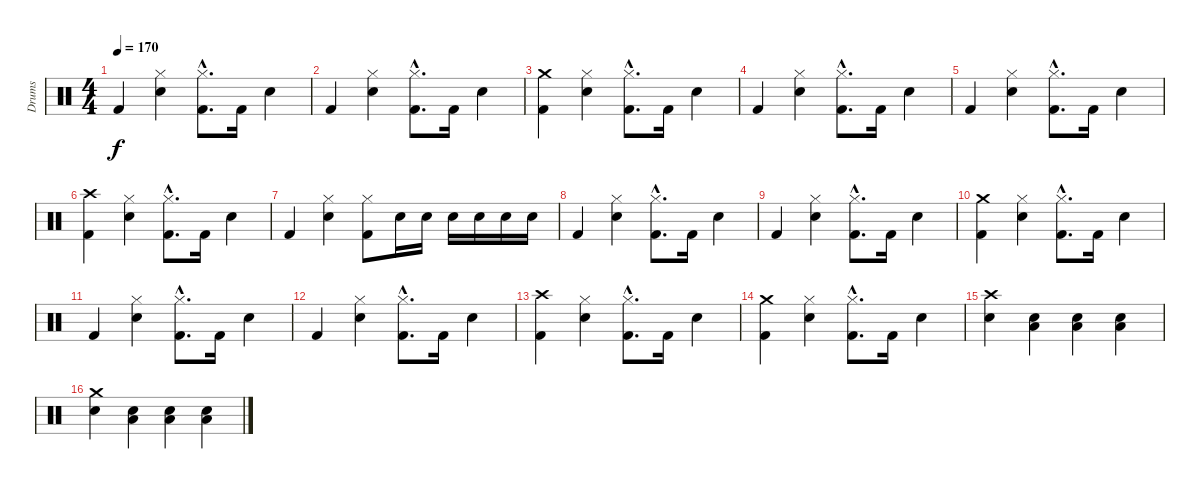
\track ("Drums" "Drums") {instrument percussion}
\staff {score}
\articulation defaults
\ts (4 4)
\tempo 170
\clef neutral
\ks c "Kick (hit) 2".4{dy f}
("Hi-Hat (closed)" "Snare (hit) 2").4 ("Hi-Hat (closed)"{hac} "Kick (hit) 2"{hac}).8{d} "Kick (hit) 2".16 "Snare (hit) 2".4 |
"Kick (hit) 2".4 ("Hi-Hat (closed)" "Snare (hit) 2").4 ("Hi-Hat (closed)"{hac} "Kick (hit) 2"{hac}).8{d} "Kick (hit) 2".16 "Snare (hit) 2".4 |
("Crash medium (hit)" "Kick (hit) 2").4 ("Hi-Hat (closed)" "Snare (hit) 2").4 ("Hi-Hat (closed)"{hac} "Kick (hit) 2"{hac}).8{d} "Kick (hit) 2".16 "Snare (hit) 2".4 |
"Kick (hit) 2".4 ("Hi-Hat (closed)" "Snare (hit) 2").4 ("Hi-Hat (closed)"{hac} "Kick (hit) 2"{hac}).8{d} "Kick (hit) 2".16 "Snare (hit) 2".4 |
"Kick (hit) 2".4 ("Hi-Hat (closed)" "Snare (hit) 2").4 ("Hi-Hat (closed)"{hac} "Kick (hit) 2"{hac}).8{d} "Kick (hit) 2".16 "Snare (hit) 2".4 |
("Crash high (hit)" "Kick (hit) 2").4 ("Hi-Hat (closed)" "Snare (hit) 2").4 ("Hi-Hat (closed)"{hac} "Kick (hit) 2"{hac}).8{d} "Kick (hit) 2".16 "Snare (hit) 2".4 |
"Kick (hit) 2".4 ("Hi-Hat (closed)" "Snare (hit) 2").4 ("Hi-Hat (closed)" "Kick (hit) 2").8 "Snare (hit) 2".16 "Snare (hit) 2".16 "Snare (hit) 2".16 "Snare (hit) 2".16 "Snare (hit) 2".16 "Snare (hit) 2".16 |
"Kick (hit) 2".4 ("Hi-Hat (closed)" "Snare (hit) 2").4 ("Hi-Hat (closed)"{hac} "Kick (hit) 2"{hac}).8{d} "Kick (hit) 2".16 "Snare (hit) 2".4 |
"Kick (hit) 2".4 ("Hi-Hat (closed)" "Snare (hit) 2").4 ("Hi-Hat (closed)"{hac} "Kick (hit) 2"{hac}).8{d} "Kick (hit) 2".16 "Snare (hit) 2".4 |
("Crash medium (hit)" "Kick (hit) 2").4 ("Hi-Hat (closed)" "Snare (hit) 2").4 ("Hi-Hat (closed)"{hac} "Kick (hit) 2"{hac}).8{d} "Kick (hit) 2".16 "Snare (hit) 2".4 |
"Kick (hit) 2".4 ("Hi-Hat (closed)" "Snare (hit) 2").4 ("Hi-Hat (closed)"{hac} "Kick (hit) 2"{hac}).8{d} "Kick (hit) 2".16 "Snare (hit) 2".4 |
"Kick (hit) 2".4 ("Hi-Hat (closed)" "Snare (hit) 2").4 ("Hi-Hat (closed)"{hac} "Kick (hit) 2"{hac}).8{d} "Kick (hit) 2".16 "Snare (hit) 2".4 |
("Crash high (hit)" "Kick (hit) 2").4 ("Hi-Hat (closed)" "Snare (hit) 2").4 ("Hi-Hat (closed)"{hac} "Kick (hit) 2"{hac}).8{d} "Kick (hit) 2".16 "Snare (hit) 2".4 |
("Crash medium (hit)" "Kick (hit) 2").4 ("Hi-Hat (closed)" "Snare (hit) 2").4 ("Hi-Hat (closed)"{hac} "Kick (hit) 2"{hac}).8{d} "Kick (hit) 2".16 "Snare (hit) 2".4 |
("Crash high (hit)" "Snare (hit) 2").4 ("Low Floor Tom (hit)" "Snare (hit) 2").4 ("Low Floor Tom (hit)" "Snare (hit) 2").4 ("Low Floor Tom (hit)" "Snare (hit) 2").4 |
("Crash medium (hit)" "Snare (hit) 2").4 ("Low Floor Tom (hit)" "Snare (hit) 2").4 ("Low Floor Tom (hit)" "Snare (hit) 2").4 ("Low Floor Tom (hit)" "Snare (hit) 2").4
